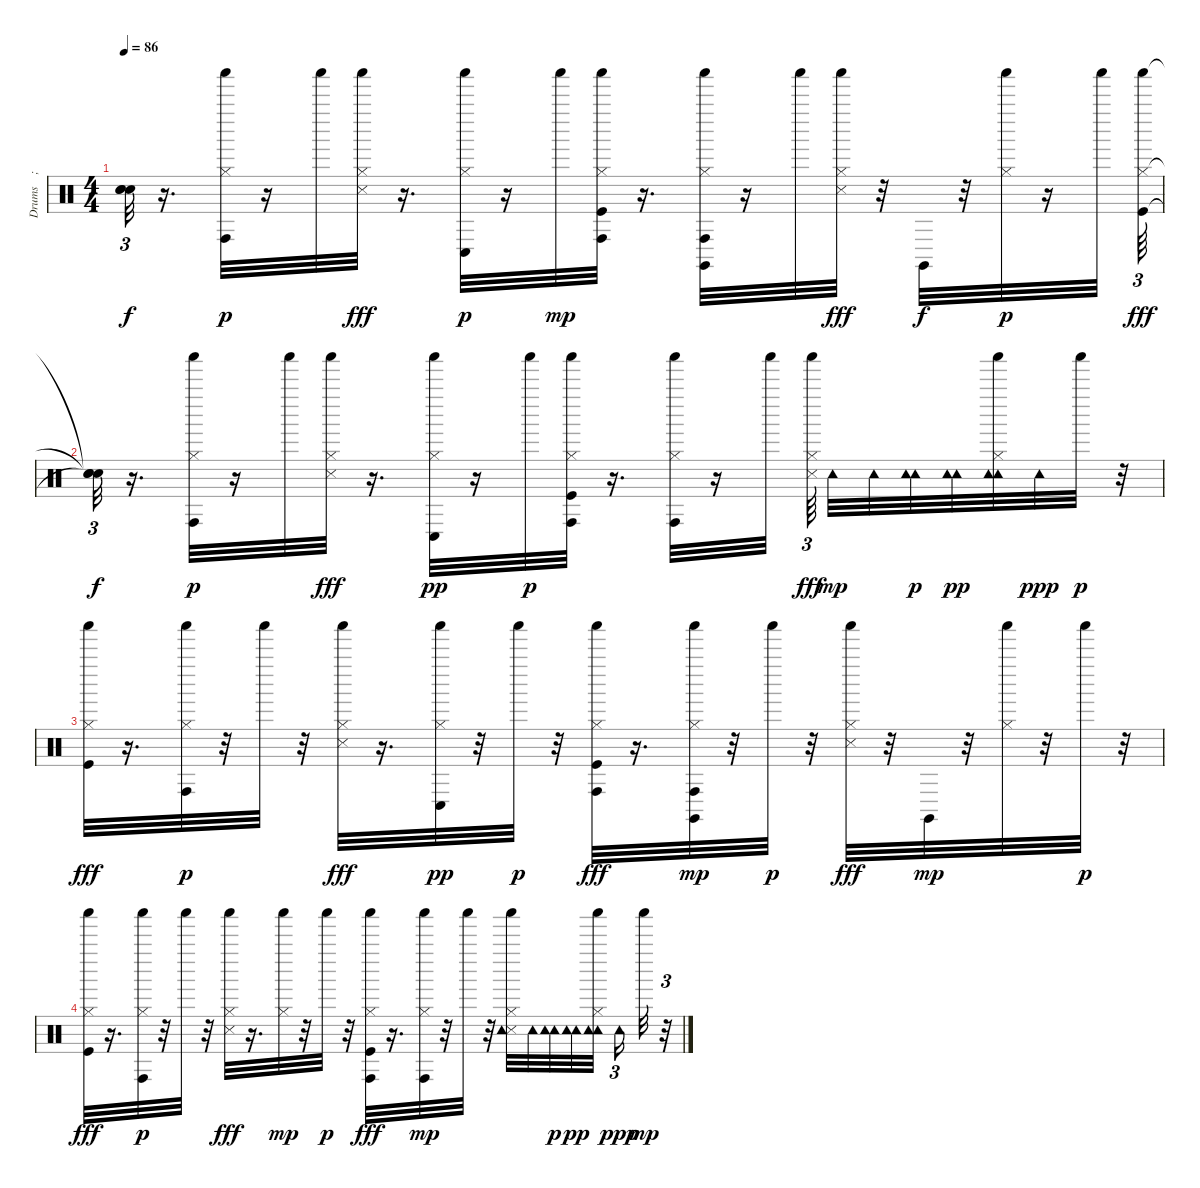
\track ("Drums    ; Standard" "Drums    ;") {instrument percussion}
\staff {score}
\articulation defaults
\ts (4 4)
\tempo 86
\clef neutral
\ks c
("Snare (hit)"{t} "Snare (hit)"{t} "Snare (hit)"{t}).32{tu (3 2) dy f} r.16{d} ("Shaker (hit)" "Hi-Hat (closed)" "Conga high (hit)").32{dy p} r.16 "Shaker (hit)".32 ("Snare (side stick) 3" "Shaker (hit)" "Hi-Hat (closed)").32{dy fff} r.16{d} ("Shaker (hit)" "Hi-Hat (closed)" "Conga low (hit)").32{dy p} r.16 "Shaker (hit)".32{dy mp} ("Kick (hit)" "Shaker (hit)" "Hi-Hat (closed)" "Conga high (hit)").32 r.16{d} ("Hi-Hat (closed)" "Shaker (hit)" "Claves (hit)" "Conga high (hit)").32 r.16 "Shaker (hit)".32 ("Shaker (hit)" "Snare (side stick) 3" "Hi-Hat (closed)").32{dy fff} r.32 "Claves (hit)".32{dy f} r.32 ("Shaker (hit)" "Hi-Hat (closed)").32{dy p} r.16 "Shaker (hit)".32 ("Shaker (hit)" "Kick (hit)" "Hi-Hat (closed)").64{tu (3 2) dy fff} |
("Snare (hit)"{t} "Snare (hit)"{t} "Snare (hit)"{t}).32{tu (3 2) dy f} r.16{d} ("Shaker (hit)" "Hi-Hat (closed)" "Conga high (hit)").32{dy p} r.16 "Shaker (hit)".32 ("Shaker (hit)" "Hi-Hat (closed)" "Snare (side stick) 3").32{dy fff} r.16{d} ("Hi-Hat (closed)" "Shaker (hit)" "Conga low (hit)").32{dy pp} r.16 "Shaker (hit)".32{dy p} ("Kick (hit)" "Hi-Hat (closed)" "Shaker (hit)" "Conga high (hit)").32 r.16{d} ("Shaker (hit)" "Conga high (hit)" "Hi-Hat (closed)").32 r.16 "Shaker (hit)".32 ("Shaker (hit)" "Snare (side stick) 3" "Hi-Hat (closed)").64{tu (3 2) dy fff} "Tambourine (hit)".32{dy mp} "Tambourine (hit)".32 ("Tambourine (hit)" "Tambourine (hit)").32{dy p} ("Tambourine (hit)" "Tambourine (hit)").32{dy pp} ("Tambourine (hit)" "Shaker (hit)" "Hi-Hat (closed)" "Tambourine (hit)").32 "Tambourine (hit)".32{dy ppp} "Shaker (hit)".32{dy p} r.32 |
("Kick (hit)" "Shaker (hit)" "Hi-Hat (closed)").32{dy fff} r.16{d} ("Shaker (hit)" "Hi-Hat (closed)" "Conga high (hit)").32{dy p} r.32 "Shaker (hit)".32 r.32 ("Shaker (hit)" "Hi-Hat (closed)" "Snare (side stick) 3").32{dy fff} r.16{d} ("Shaker (hit)" "Hi-Hat (closed)" "Conga low (hit)").32{dy pp} r.32 "Shaker (hit)".32{dy p} r.32 ("Kick (hit)" "Shaker (hit)" "Conga high (hit)" "Hi-Hat (closed)").32{dy fff} r.16{d} ("Conga high (hit)" "Shaker (hit)" "Hi-Hat (closed)" "Claves (hit)").32{dy mp} r.32 "Shaker (hit)".32{dy p} r.32 ("Snare (side stick) 3" "Shaker (hit)" "Hi-Hat (closed)").32{dy fff} r.32 "Claves (hit)".32{dy mp} r.32 ("Shaker (hit)" "Hi-Hat (closed)").32 r.32 "Shaker (hit)".32{dy p} r.32 |
("Kick (hit)" "Shaker (hit)" "Hi-Hat (closed)").32{dy fff} r.16{d} ("Shaker (hit)" "Hi-Hat (closed)" "Conga high (hit)").32{dy p} r.32 "Shaker (hit)".32 r.32 ("Shaker (hit)" "Hi-Hat (closed)" "Snare (side stick) 3").32{dy fff} r.16{d} ("Shaker (hit)" "Hi-Hat (closed)").32{dy mp} r.32 "Shaker (hit)".32{dy p} r.32 ("Kick (hit)" "Shaker (hit)" "Conga high (hit)" "Hi-Hat (closed)").32{dy fff} r.16{d} ("Conga high (hit)" "Shaker (hit)" "Hi-Hat (closed)").32{dy mp} r.32 "Shaker (hit)".32 r.32 ("Snare (side stick) 3" "Shaker (hit)" "Hi-Hat (closed)" "Tambourine (hit)").32 "Tambourine (hit)".32 ("Tambourine (hit)" "Tambourine (hit)").32{dy p} ("Tambourine (hit)" "Tambourine (hit)").32{dy pp} ("Tambourine (hit)" "Shaker (hit)" "Hi-Hat (closed)" "Tambourine (hit)").32 "Tambourine (hit)".16{tu (3 2) dy ppp} "Shaker (hit)".32{dy mp} r.32{tu (3 2)}
